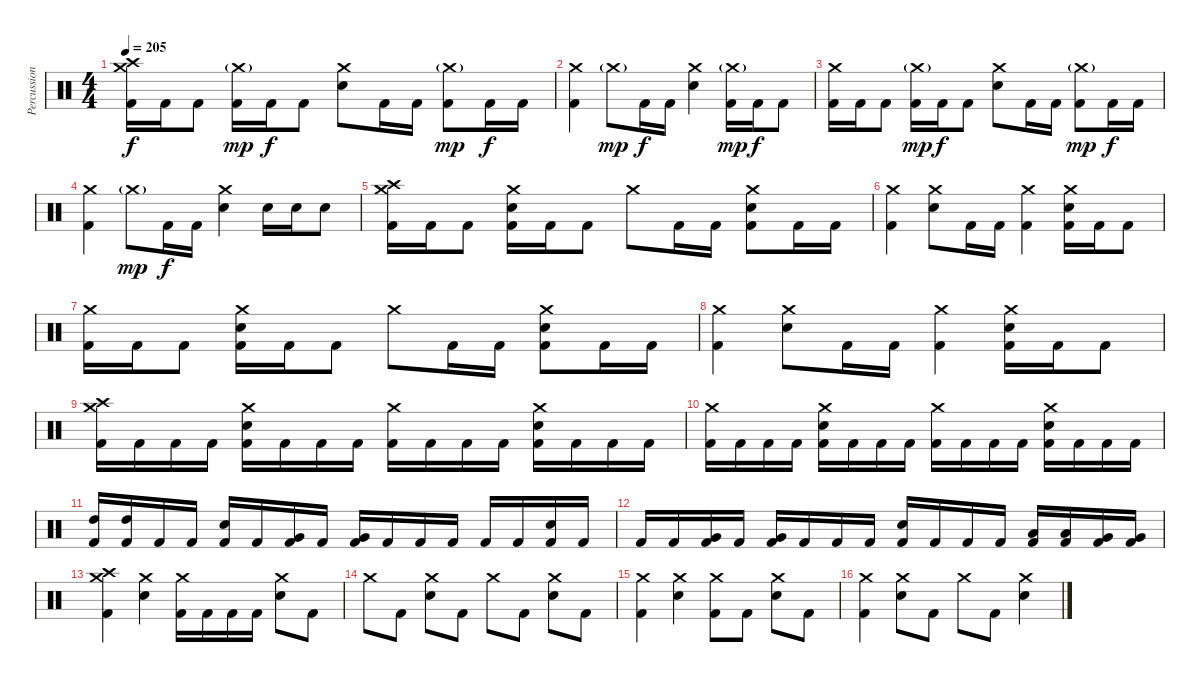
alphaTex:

\track ("Percussions" "Percussion") {instrument percussion}
\staff {score}
\articulation defaults
\ts (4 4)
\tempo 205
\clef neutral
\ks c
("Crash medium (hit)" "Crash high (hit)" "Kick (hit) 2").16{dy f} "Kick (hit) 2".16 "Kick (hit) 2".8 ("Crash medium (hit)"{g} "Kick (hit) 2").16{dy mp} "Kick (hit) 2".16{dy f} "Kick (hit) 2".8 ("Crash medium (hit)" "Electric Snare (hit)").8 "Kick (hit) 2".16 "Kick (hit) 2".16 ("Crash medium (hit)"{g} "Kick (hit) 2").8{dy mp} "Kick (hit) 2".16{dy f} "Kick (hit) 2".16 |
("Crash medium (hit)" "Kick (hit) 2").4 "Crash medium (hit)"{g}.8{dy mp} "Kick (hit) 2".16{dy f} "Kick (hit) 2".16 ("Crash medium (hit)" "Electric Snare (hit)").4 ("Crash medium (hit)"{g} "Kick (hit) 2").16{dy mp} "Kick (hit) 2".16{dy f} "Kick (hit) 2".8 |
("Crash medium (hit)" "Kick (hit) 2").16 "Kick (hit) 2".16 "Kick (hit) 2".8 ("Crash medium (hit)"{g} "Kick (hit) 2").16{dy mp} "Kick (hit) 2".16{dy f} "Kick (hit) 2".8 ("Crash medium (hit)" "Electric Snare (hit)").8 "Kick (hit) 2".16 "Kick (hit) 2".16 ("Crash medium (hit)"{g} "Kick (hit) 2").8{dy mp} "Kick (hit) 2".16{dy f} "Kick (hit) 2".16 |
("Crash medium (hit)" "Kick (hit) 2").4 "Crash medium (hit)"{g}.8{dy mp} "Kick (hit) 2".16{dy f} "Kick (hit) 2".16 ("Crash medium (hit)" "Electric Snare (hit)").4 "Electric Snare (hit)".16 "Electric Snare (hit)".16 "Electric Snare (hit)".8 |
("Crash medium (hit)" "Crash high (hit)" "Kick (hit) 2").16 "Kick (hit) 2".16 "Kick (hit) 2".8 ("Crash medium (hit)" "Electric Snare (hit)" "Kick (hit) 2").16 "Kick (hit) 2".16 "Kick (hit) 2".8 "Crash medium (hit)".8 "Kick (hit) 2".16 "Kick (hit) 2".16 ("Crash medium (hit)" "Electric Snare (hit)" "Kick (hit) 2").8 "Kick (hit) 2".16 "Kick (hit) 2".16 |
("Crash medium (hit)" "Kick (hit) 2").4 ("Crash medium (hit)" "Electric Snare (hit)").8 "Kick (hit) 2".16 "Kick (hit) 2".16 ("Crash medium (hit)" "Kick (hit) 2").4 ("Crash medium (hit)" "Electric Snare (hit)" "Kick (hit) 2").16 "Kick (hit) 2".16 "Kick (hit) 2".8 |
("Crash medium (hit)" "Kick (hit) 2").16 "Kick (hit) 2".16 "Kick (hit) 2".8 ("Crash medium (hit)" "Electric Snare (hit)" "Kick (hit) 2").16 "Kick (hit) 2".16 "Kick (hit) 2".8 "Crash medium (hit)".8 "Kick (hit) 2".16 "Kick (hit) 2".16 ("Crash medium (hit)" "Electric Snare (hit)" "Kick (hit) 2").8 "Kick (hit) 2".16 "Kick (hit) 2".16 |
("Crash medium (hit)" "Kick (hit) 2").4 ("Crash medium (hit)" "Electric Snare (hit)").8 "Kick (hit) 2".16 "Kick (hit) 2".16 ("Crash medium (hit)" "Kick (hit) 2").4 ("Crash medium (hit)" "Electric Snare (hit)" "Kick (hit) 2").16 "Kick (hit) 2".16 "Kick (hit) 2".8 |
("Crash medium (hit)" "Crash high (hit)" "Kick (hit) 2").16 "Kick (hit) 2".16 "Kick (hit) 2".16 "Kick (hit) 2".16 ("Crash medium (hit)" "Electric Snare (hit)" "Kick (hit) 2").16 "Kick (hit) 2".16 "Kick (hit) 2".16 "Kick (hit) 2".16 ("Crash medium (hit)" "Kick (hit) 2").16 "Kick (hit) 2".16 "Kick (hit) 2".16 "Kick (hit) 2".16 ("Crash medium (hit)" "Electric Snare (hit)" "Kick (hit) 2").16 "Kick (hit) 2".16 "Kick (hit) 2".16 "Kick (hit) 2".16 |
("Crash medium (hit)" "Kick (hit) 2").16 "Kick (hit) 2".16 "Kick (hit) 2".16 "Kick (hit) 2".16 ("Crash medium (hit)" "Electric Snare (hit)" "Kick (hit) 2").16 "Kick (hit) 2".16 "Kick (hit) 2".16 "Kick (hit) 2".16 ("Crash medium (hit)" "Kick (hit) 2").16 "Kick (hit) 2".16 "Kick (hit) 2".16 "Kick (hit) 2".16 ("Crash medium (hit)" "Electric Snare (hit)" "Kick (hit) 2").16 "Kick (hit) 2".16 "Kick (hit) 2".16 "Kick (hit) 2".16 |
("High Tom (hit)" "Kick (hit) 2").16 ("High Tom (hit)" "Kick (hit) 2").16 "Kick (hit) 2".16 "Kick (hit) 2".16 ("Electric Snare (hit)" "Kick (hit) 2").16 "Kick (hit) 2".16 ("Very Low Tom (hit)" "Kick (hit) 2").16 "Kick (hit) 2".16 ("Very Low Tom (hit)" "Kick (hit) 2").16 "Kick (hit) 2".16 "Kick (hit) 2".16 "Kick (hit) 2".16 "Kick (hit) 2".16 "Kick (hit) 2".16 ("Electric Snare (hit)" "Kick (hit) 2").16 "Kick (hit) 2".16 |
"Kick (hit) 2".16 "Kick (hit) 2".16 ("Very Low Tom (hit)" "Kick (hit) 2").16 "Kick (hit) 2".16 ("Very Low Tom (hit)" "Kick (hit) 2").16 "Kick (hit) 2".16 "Kick (hit) 2".16 "Kick (hit) 2".16 ("Electric Snare (hit)" "Kick (hit) 2").16 "Kick (hit) 2".16 "Kick (hit) 2".16 "Kick (hit) 2".16 ("Low Tom (hit)" "Kick (hit) 2").16 ("Low Tom (hit)" "Kick (hit) 2").16 ("Very Low Tom (hit)" "Kick (hit) 2").16 ("Very Low Tom (hit)" "Kick (hit) 2").16 |
("Crash medium (hit)" "Crash high (hit)" "Kick (hit) 2").4 ("Crash medium (hit)" "Electric Snare (hit)").4 ("Crash medium (hit)" "Kick (hit) 2").16 "Kick (hit) 2".16 "Kick (hit) 2".16 "Kick (hit) 2".16 ("Crash medium (hit)" "Electric Snare (hit)").8 "Kick (hit) 2".8 |
"Crash medium (hit)".8 "Kick (hit) 2".8 ("Crash medium (hit)" "Electric Snare (hit)").8 "Kick (hit) 2".8 "Crash medium (hit)".8 "Kick (hit) 2".8 ("Crash medium (hit)" "Electric Snare (hit)").8 "Kick (hit) 2".8 |
("Crash medium (hit)" "Kick (hit) 2").4 ("Crash medium (hit)" "Electric Snare (hit)").4 ("Crash medium (hit)" "Kick (hit) 2").8 "Kick (hit) 2".8 ("Crash medium (hit)" "Electric Snare (hit)").8 "Kick (hit) 2".8 |
("Crash medium (hit)" "Kick (hit) 2").4 ("Crash medium (hit)" "Electric Snare (hit)").8 "Kick (hit) 2".8 "Crash medium (hit)".8 "Kick (hit) 2".8 ("Crash medium (hit)" "Electric Snare (hit)").4
